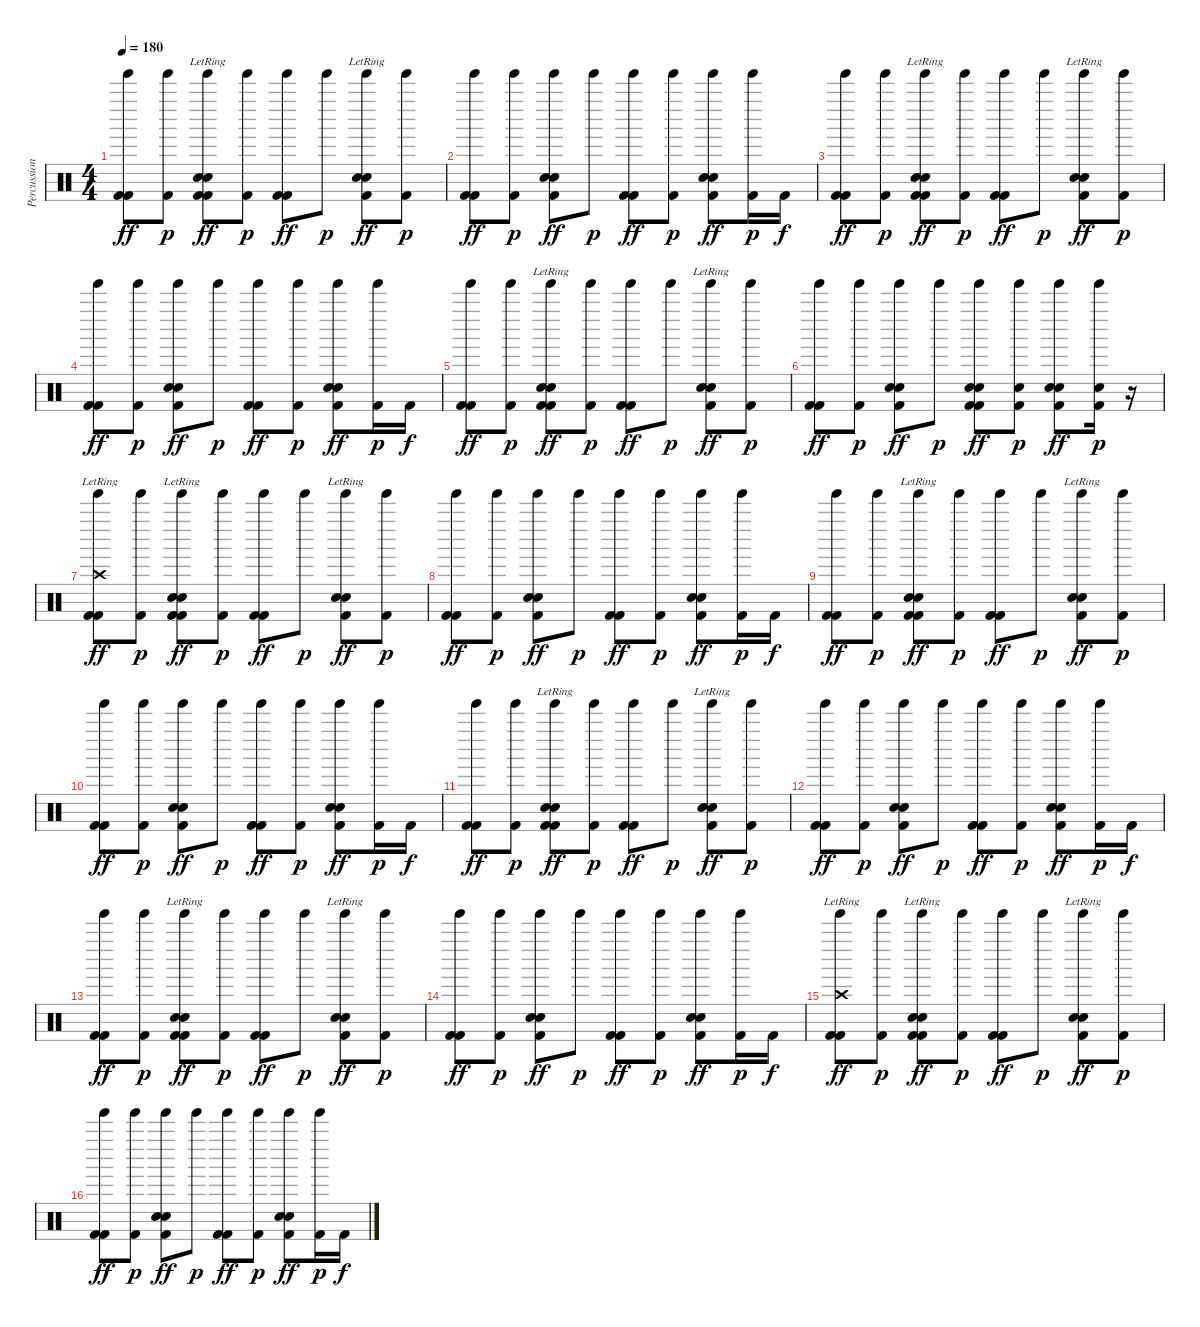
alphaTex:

\track ("Percussion" "Percussion") {instrument percussion}
\staff {score}
\articulation defaults
\ts (4 4)
\tempo 180
\clef neutral
\ks c
("Tinkle Bell (hit)" "Kick (hit) 2" "Kick (hit) 2").8{dy ff} ("Tinkle Bell (hit)" "Kick (hit) 2").8{dy p} ("Tinkle Bell (hit)" "Snare (hit) 2"{lr} "Electric Snare (hit)" "Kick (hit) 2" "Kick (hit) 2").8{dy ff} ("Tinkle Bell (hit)" "Kick (hit) 2").8{dy p} ("Tinkle Bell (hit)" "Kick (hit) 2" "Kick (hit) 2").8{dy ff} "Tinkle Bell (hit)".8{dy p} ("Tinkle Bell (hit)" "Snare (hit) 2"{lr} "Electric Snare (hit)" "Kick (hit) 2").8{dy ff} ("Tinkle Bell (hit)" "Kick (hit) 2").8{dy p} |
("Tinkle Bell (hit)" "Kick (hit) 2" "Kick (hit) 2").8{dy ff} ("Tinkle Bell (hit)" "Kick (hit) 2").8{dy p} ("Tinkle Bell (hit)" "Snare (hit) 2" "Electric Snare (hit)" "Kick (hit) 2").8{dy ff} "Tinkle Bell (hit)".8{dy p} ("Tinkle Bell (hit)" "Kick (hit) 2" "Kick (hit) 2").8{dy ff} ("Tinkle Bell (hit)" "Kick (hit) 2").8{dy p} ("Tinkle Bell (hit)" "Snare (hit) 2" "Electric Snare (hit)" "Kick (hit) 2").8{dy ff} ("Tinkle Bell (hit)" "Kick (hit) 2").16{dy p} "Kick (hit) 2".16{dy f} |
("Tinkle Bell (hit)" "Kick (hit) 2" "Kick (hit) 2").8{dy ff} ("Tinkle Bell (hit)" "Kick (hit) 2").8{dy p} ("Tinkle Bell (hit)" "Snare (hit) 2"{lr} "Electric Snare (hit)" "Kick (hit) 2" "Kick (hit) 2").8{dy ff} ("Tinkle Bell (hit)" "Kick (hit) 2").8{dy p} ("Tinkle Bell (hit)" "Kick (hit) 2" "Kick (hit) 2").8{dy ff} "Tinkle Bell (hit)".8{dy p} ("Tinkle Bell (hit)" "Snare (hit) 2"{lr} "Electric Snare (hit)" "Kick (hit) 2").8{dy ff} ("Tinkle Bell (hit)" "Kick (hit) 2").8{dy p} |
("Tinkle Bell (hit)" "Kick (hit) 2" "Kick (hit) 2").8{dy ff} ("Tinkle Bell (hit)" "Kick (hit) 2").8{dy p} ("Tinkle Bell (hit)" "Snare (hit) 2" "Electric Snare (hit)" "Kick (hit) 2").8{dy ff} "Tinkle Bell (hit)".8{dy p} ("Tinkle Bell (hit)" "Kick (hit) 2" "Kick (hit) 2").8{dy ff} ("Tinkle Bell (hit)" "Kick (hit) 2").8{dy p} ("Tinkle Bell (hit)" "Snare (hit) 2" "Electric Snare (hit)" "Kick (hit) 2").8{dy ff} ("Tinkle Bell (hit)" "Kick (hit) 2").16{dy p} "Kick (hit) 2".16{dy f} |
("Tinkle Bell (hit)" "Kick (hit) 2" "Kick (hit) 2").8{dy ff} ("Tinkle Bell (hit)" "Kick (hit) 2").8{dy p} ("Tinkle Bell (hit)" "Snare (hit) 2"{lr} "Electric Snare (hit)" "Kick (hit) 2" "Kick (hit) 2").8{dy ff} ("Tinkle Bell (hit)" "Kick (hit) 2").8{dy p} ("Tinkle Bell (hit)" "Kick (hit) 2" "Kick (hit) 2").8{dy ff} "Tinkle Bell (hit)".8{dy p} ("Tinkle Bell (hit)" "Snare (hit) 2"{lr} "Electric Snare (hit)" "Kick (hit) 2").8{dy ff} ("Tinkle Bell (hit)" "Kick (hit) 2").8{dy p} |
("Tinkle Bell (hit)" "Kick (hit) 2" "Kick (hit) 2").8{dy ff} ("Tinkle Bell (hit)" "Kick (hit) 2").8{dy p} ("Tinkle Bell (hit)" "Snare (hit) 2" "Electric Snare (hit)" "Kick (hit) 2").8{dy ff} "Tinkle Bell (hit)".8{dy p} ("Tinkle Bell (hit)" "Snare (hit) 2" "Electric Snare (hit)" "Kick (hit) 2" "Kick (hit) 2").8{dy ff} ("Tinkle Bell (hit)" "Electric Snare (hit)" "Kick (hit) 2").8{dy p} ("Tinkle Bell (hit)" "Snare (hit) 2" "Electric Snare (hit)" "Kick (hit) 2").8{dy ff} ("Tinkle Bell (hit)" "Electric Snare (hit)" "Kick (hit) 2").16{dy p} r.16 |
("Tinkle Bell (hit)" "Crash high (hit)"{lr} "Kick (hit) 2" "Kick (hit) 2").8{dy ff} ("Tinkle Bell (hit)" "Kick (hit) 2").8{dy p} ("Tinkle Bell (hit)" "Snare (hit) 2"{lr} "Electric Snare (hit)" "Kick (hit) 2" "Kick (hit) 2").8{dy ff} ("Tinkle Bell (hit)" "Kick (hit) 2").8{dy p} ("Tinkle Bell (hit)" "Kick (hit) 2" "Kick (hit) 2").8{dy ff} "Tinkle Bell (hit)".8{dy p} ("Tinkle Bell (hit)" "Snare (hit) 2"{lr} "Electric Snare (hit)" "Kick (hit) 2").8{dy ff} ("Tinkle Bell (hit)" "Kick (hit) 2").8{dy p} |
("Tinkle Bell (hit)" "Kick (hit) 2" "Kick (hit) 2").8{dy ff} ("Tinkle Bell (hit)" "Kick (hit) 2").8{dy p} ("Tinkle Bell (hit)" "Snare (hit) 2" "Electric Snare (hit)" "Kick (hit) 2").8{dy ff} "Tinkle Bell (hit)".8{dy p} ("Tinkle Bell (hit)" "Kick (hit) 2" "Kick (hit) 2").8{dy ff} ("Tinkle Bell (hit)" "Kick (hit) 2").8{dy p} ("Tinkle Bell (hit)" "Snare (hit) 2" "Electric Snare (hit)" "Kick (hit) 2").8{dy ff} ("Tinkle Bell (hit)" "Kick (hit) 2").16{dy p} "Kick (hit) 2".16{dy f} |
("Tinkle Bell (hit)" "Kick (hit) 2" "Kick (hit) 2").8{dy ff} ("Tinkle Bell (hit)" "Kick (hit) 2").8{dy p} ("Tinkle Bell (hit)" "Snare (hit) 2"{lr} "Electric Snare (hit)" "Kick (hit) 2" "Kick (hit) 2").8{dy ff} ("Tinkle Bell (hit)" "Kick (hit) 2").8{dy p} ("Tinkle Bell (hit)" "Kick (hit) 2" "Kick (hit) 2").8{dy ff} "Tinkle Bell (hit)".8{dy p} ("Tinkle Bell (hit)" "Snare (hit) 2"{lr} "Electric Snare (hit)" "Kick (hit) 2").8{dy ff} ("Tinkle Bell (hit)" "Kick (hit) 2").8{dy p} |
("Tinkle Bell (hit)" "Kick (hit) 2" "Kick (hit) 2").8{dy ff} ("Tinkle Bell (hit)" "Kick (hit) 2").8{dy p} ("Tinkle Bell (hit)" "Snare (hit) 2" "Electric Snare (hit)" "Kick (hit) 2").8{dy ff} "Tinkle Bell (hit)".8{dy p} ("Tinkle Bell (hit)" "Kick (hit) 2" "Kick (hit) 2").8{dy ff} ("Tinkle Bell (hit)" "Kick (hit) 2").8{dy p} ("Tinkle Bell (hit)" "Snare (hit) 2" "Electric Snare (hit)" "Kick (hit) 2").8{dy ff} ("Tinkle Bell (hit)" "Kick (hit) 2").16{dy p} "Kick (hit) 2".16{dy f} |
("Tinkle Bell (hit)" "Kick (hit) 2" "Kick (hit) 2").8{dy ff} ("Tinkle Bell (hit)" "Kick (hit) 2").8{dy p} ("Tinkle Bell (hit)" "Snare (hit) 2"{lr} "Electric Snare (hit)" "Kick (hit) 2" "Kick (hit) 2").8{dy ff} ("Tinkle Bell (hit)" "Kick (hit) 2").8{dy p} ("Tinkle Bell (hit)" "Kick (hit) 2" "Kick (hit) 2").8{dy ff} "Tinkle Bell (hit)".8{dy p} ("Tinkle Bell (hit)" "Snare (hit) 2"{lr} "Electric Snare (hit)" "Kick (hit) 2").8{dy ff} ("Tinkle Bell (hit)" "Kick (hit) 2").8{dy p} |
("Tinkle Bell (hit)" "Kick (hit) 2" "Kick (hit) 2").8{dy ff} ("Tinkle Bell (hit)" "Kick (hit) 2").8{dy p} ("Tinkle Bell (hit)" "Snare (hit) 2" "Electric Snare (hit)" "Kick (hit) 2").8{dy ff} "Tinkle Bell (hit)".8{dy p} ("Tinkle Bell (hit)" "Kick (hit) 2" "Kick (hit) 2").8{dy ff} ("Tinkle Bell (hit)" "Kick (hit) 2").8{dy p} ("Tinkle Bell (hit)" "Snare (hit) 2" "Electric Snare (hit)" "Kick (hit) 2").8{dy ff} ("Tinkle Bell (hit)" "Kick (hit) 2").16{dy p} "Kick (hit) 2".16{dy f} |
("Tinkle Bell (hit)" "Kick (hit) 2" "Kick (hit) 2").8{dy ff} ("Tinkle Bell (hit)" "Kick (hit) 2").8{dy p} ("Tinkle Bell (hit)" "Snare (hit) 2"{lr} "Electric Snare (hit)" "Kick (hit) 2" "Kick (hit) 2").8{dy ff} ("Tinkle Bell (hit)" "Kick (hit) 2").8{dy p} ("Tinkle Bell (hit)" "Kick (hit) 2" "Kick (hit) 2").8{dy ff} "Tinkle Bell (hit)".8{dy p} ("Tinkle Bell (hit)" "Snare (hit) 2"{lr} "Electric Snare (hit)" "Kick (hit) 2").8{dy ff} ("Tinkle Bell (hit)" "Kick (hit) 2").8{dy p} |
("Tinkle Bell (hit)" "Kick (hit) 2" "Kick (hit) 2").8{dy ff} ("Tinkle Bell (hit)" "Kick (hit) 2").8{dy p} ("Tinkle Bell (hit)" "Snare (hit) 2" "Electric Snare (hit)" "Kick (hit) 2").8{dy ff} "Tinkle Bell (hit)".8{dy p} ("Tinkle Bell (hit)" "Kick (hit) 2" "Kick (hit) 2").8{dy ff} ("Tinkle Bell (hit)" "Kick (hit) 2").8{dy p} ("Tinkle Bell (hit)" "Snare (hit) 2" "Electric Snare (hit)" "Kick (hit) 2").8{dy ff} ("Tinkle Bell (hit)" "Kick (hit) 2").16{dy p} "Kick (hit) 2".16{dy f} |
("Tinkle Bell (hit)" "Crash high (hit)"{lr} "Kick (hit) 2" "Kick (hit) 2").8{dy ff} ("Tinkle Bell (hit)" "Kick (hit) 2").8{dy p} ("Tinkle Bell (hit)" "Snare (hit) 2"{lr} "Electric Snare (hit)" "Kick (hit) 2" "Kick (hit) 2").8{dy ff} ("Tinkle Bell (hit)" "Kick (hit) 2").8{dy p} ("Tinkle Bell (hit)" "Kick (hit) 2" "Kick (hit) 2").8{dy ff} "Tinkle Bell (hit)".8{dy p} ("Tinkle Bell (hit)" "Snare (hit) 2"{lr} "Electric Snare (hit)" "Kick (hit) 2").8{dy ff} ("Tinkle Bell (hit)" "Kick (hit) 2").8{dy p} |
("Tinkle Bell (hit)" "Kick (hit) 2" "Kick (hit) 2").8{dy ff} ("Tinkle Bell (hit)" "Kick (hit) 2").8{dy p} ("Tinkle Bell (hit)" "Snare (hit) 2" "Electric Snare (hit)" "Kick (hit) 2").8{dy ff} "Tinkle Bell (hit)".8{dy p} ("Tinkle Bell (hit)" "Kick (hit) 2" "Kick (hit) 2").8{dy ff} ("Tinkle Bell (hit)" "Kick (hit) 2").8{dy p} ("Tinkle Bell (hit)" "Snare (hit) 2" "Electric Snare (hit)" "Kick (hit) 2").8{dy ff} ("Tinkle Bell (hit)" "Kick (hit) 2").16{dy p} "Kick (hit) 2".16{dy f}
